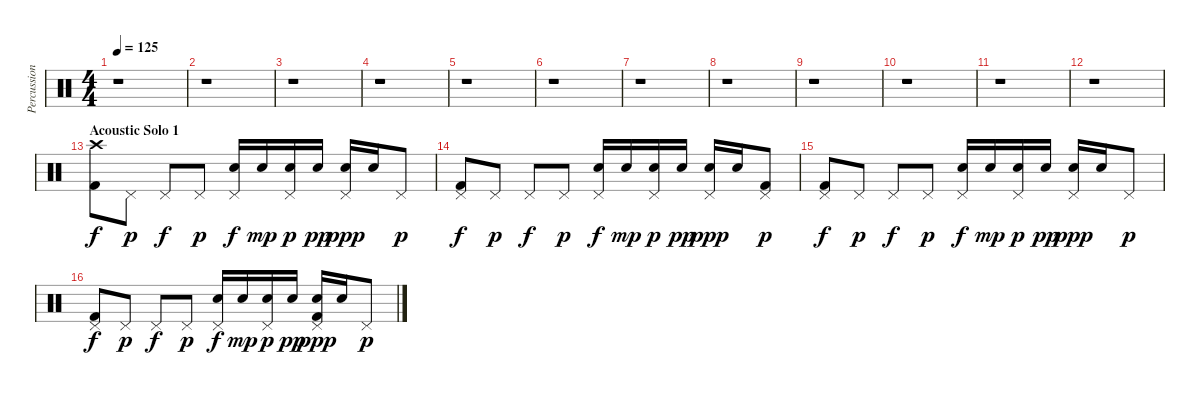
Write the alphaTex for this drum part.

\track ("Percussion" "Percussion") {instrument percussion}
\staff {score}
\articulation defaults
\ts (4 4)
\tempo 125
\clef neutral
\ks c
r.1{dy f} |
r.1 |
r.1 |
r.1 |
r.1 |
r.1 |
r.1 |
r.1 |
r.1 |
r.1 |
r.1 |
r.1 |
\section ("" "Acoustic Solo 1")
("Crash high (hit)" "Kick (hit) 2").8 "Pedal Hi-Hat (hit)".8{dy p} "Pedal Hi-Hat (hit)".8{dy f} "Pedal Hi-Hat (hit)".8{dy p} ("Pedal Hi-Hat (hit)" "Electric Snare (hit)").16{dy f} "Electric Snare (hit)".16{dy mp} ("Pedal Hi-Hat (hit)" "Electric Snare (hit)").16{dy p} "Electric Snare (hit)".16{dy pp} ("Pedal Hi-Hat (hit)" "Electric Snare (hit)").16{dy ppp} "Electric Snare (hit)".16 "Pedal Hi-Hat (hit)".8{dy p} |
("Pedal Hi-Hat (hit)" "Kick (hit) 2").8{dy f} "Pedal Hi-Hat (hit)".8{dy p} "Pedal Hi-Hat (hit)".8{dy f} "Pedal Hi-Hat (hit)".8{dy p} ("Pedal Hi-Hat (hit)" "Electric Snare (hit)").16{dy f} "Electric Snare (hit)".16{dy mp} ("Pedal Hi-Hat (hit)" "Electric Snare (hit)").16{dy p} "Electric Snare (hit)".16{dy pp} ("Pedal Hi-Hat (hit)" "Electric Snare (hit)").16{dy ppp} "Electric Snare (hit)".16 ("Pedal Hi-Hat (hit)" "Kick (hit) 2").8{dy p} |
("Pedal Hi-Hat (hit)" "Kick (hit) 2").8{dy f} "Pedal Hi-Hat (hit)".8{dy p} "Pedal Hi-Hat (hit)".8{dy f} "Pedal Hi-Hat (hit)".8{dy p} ("Pedal Hi-Hat (hit)" "Electric Snare (hit)").16{dy f} "Electric Snare (hit)".16{dy mp} ("Pedal Hi-Hat (hit)" "Electric Snare (hit)").16{dy p} "Electric Snare (hit)".16{dy pp} ("Pedal Hi-Hat (hit)" "Electric Snare (hit)").16{dy ppp} "Electric Snare (hit)".16 "Pedal Hi-Hat (hit)".8{dy p} |
("Pedal Hi-Hat (hit)" "Kick (hit) 2").8{dy f} "Pedal Hi-Hat (hit)".8{dy p} "Pedal Hi-Hat (hit)".8{dy f} "Pedal Hi-Hat (hit)".8{dy p} ("Pedal Hi-Hat (hit)" "Electric Snare (hit)").16{dy f} "Electric Snare (hit)".16{dy mp} ("Pedal Hi-Hat (hit)" "Electric Snare (hit)").16{dy p} "Electric Snare (hit)".16{dy pp} ("Pedal Hi-Hat (hit)" "Electric Snare (hit)" "Kick (hit) 2").16{dy ppp} "Electric Snare (hit)".16 "Pedal Hi-Hat (hit)".8{dy p}
